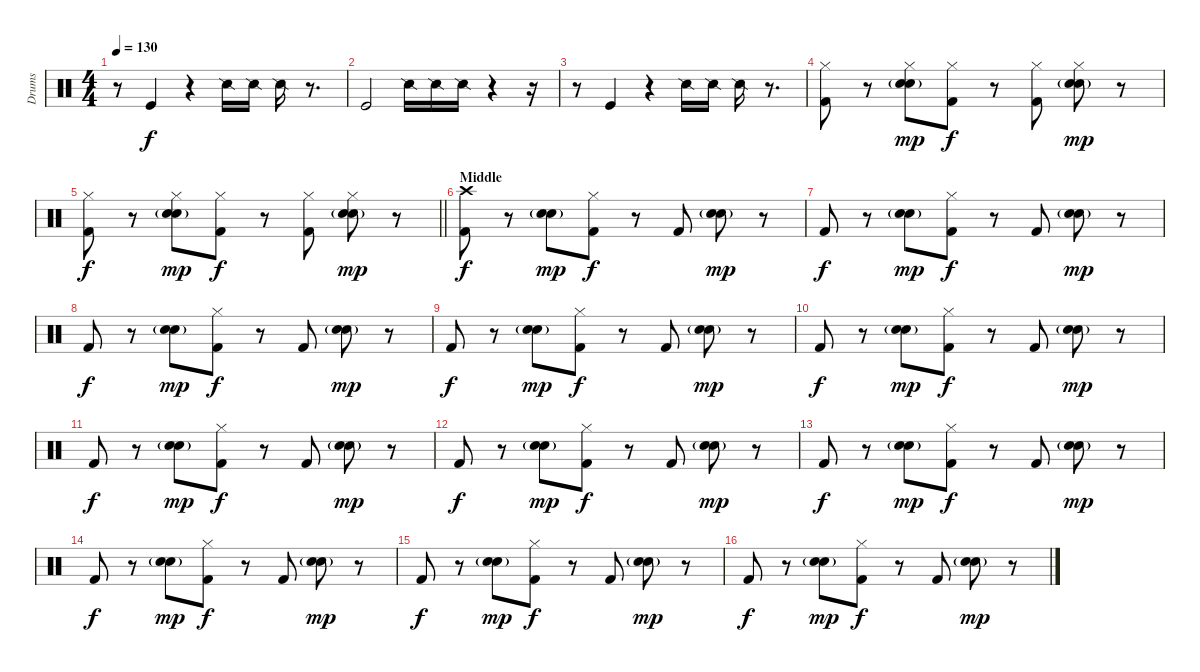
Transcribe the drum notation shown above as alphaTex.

\track ("Drums" "Drums") {instrument percussion}
\staff {score}
\articulation defaults
\ts (4 4)
\tempo 130
\clef neutral
\ks c
r.8{dy f} "Kick (hit)".4 r.4 "Snare (side stick) 2".16 "Snare (side stick) 2".16 "Snare (side stick) 2".16 r.8{d} |
"Kick (hit)".2 "Snare (side stick) 2".16 "Snare (side stick) 2".16 "Snare (side stick) 2".16 r.4 r.16 |
r.8 "Kick (hit)".4 r.4 "Snare (side stick) 2".16 "Snare (side stick) 2".16 "Snare (side stick) 2".16 r.8{d volume 4} |
("Hi-Hat (closed)" "Kick (hit) 2").8{volume 16} r.8 ("Hi-Hat (closed)" "Snare (hit) 2"{g} "Electric Snare (hit)").8{dy mp} ("Hi-Hat (closed)" "Kick (hit) 2").8{dy f} r.8 ("Hi-Hat (closed)" "Kick (hit) 2").8 ("Hi-Hat (closed)" "Snare (hit) 2"{g} "Electric Snare (hit)").8{dy mp} r.8 |
\barLineRight lightlight
("Hi-Hat (closed)" "Kick (hit) 2").8{dy f} r.8 ("Hi-Hat (closed)" "Snare (hit) 2"{g} "Electric Snare (hit)").8{dy mp} ("Hi-Hat (closed)" "Kick (hit) 2").8{dy f} r.8 ("Hi-Hat (closed)" "Kick (hit) 2").8 ("Hi-Hat (closed)" "Snare (hit) 2"{g} "Electric Snare (hit)").8{dy mp} r.8 |
\section ("" "Middle")
("Crash high (hit)" "Kick (hit) 2").8{dy f} r.8 ("Snare (hit) 2"{g} "Electric Snare (hit)").8{dy mp} ("Hi-Hat (closed)" "Kick (hit) 2").8{dy f} r.8 "Kick (hit) 2".8 ("Snare (hit) 2"{g} "Electric Snare (hit)").8{dy mp} r.8 |
"Kick (hit) 2".8{dy f} r.8 ("Snare (hit) 2"{g} "Electric Snare (hit)").8{dy mp} ("Hi-Hat (closed)" "Kick (hit) 2").8{dy f} r.8 "Kick (hit) 2".8 ("Snare (hit) 2"{g} "Electric Snare (hit)").8{dy mp} r.8 |
"Kick (hit) 2".8{dy f} r.8 ("Snare (hit) 2"{g} "Electric Snare (hit)").8{dy mp} ("Hi-Hat (closed)" "Kick (hit) 2").8{dy f} r.8 "Kick (hit) 2".8 ("Snare (hit) 2"{g} "Electric Snare (hit)").8{dy mp} r.8 |
"Kick (hit) 2".8{dy f} r.8 ("Snare (hit) 2"{g} "Electric Snare (hit)").8{dy mp} ("Hi-Hat (closed)" "Kick (hit) 2").8{dy f} r.8 "Kick (hit) 2".8 ("Snare (hit) 2"{g} "Electric Snare (hit)").8{dy mp} r.8 |
"Kick (hit) 2".8{dy f} r.8 ("Snare (hit) 2"{g} "Electric Snare (hit)").8{dy mp} ("Hi-Hat (closed)" "Kick (hit) 2").8{dy f} r.8 "Kick (hit) 2".8 ("Snare (hit) 2"{g} "Electric Snare (hit)").8{dy mp} r.8 |
"Kick (hit) 2".8{dy f} r.8 ("Snare (hit) 2"{g} "Electric Snare (hit)").8{dy mp} ("Hi-Hat (closed)" "Kick (hit) 2").8{dy f} r.8 "Kick (hit) 2".8 ("Snare (hit) 2"{g} "Electric Snare (hit)").8{dy mp} r.8 |
"Kick (hit) 2".8{dy f} r.8 ("Snare (hit) 2"{g} "Electric Snare (hit)").8{dy mp} ("Hi-Hat (closed)" "Kick (hit) 2").8{dy f} r.8 "Kick (hit) 2".8 ("Snare (hit) 2"{g} "Electric Snare (hit)").8{dy mp} r.8 |
"Kick (hit) 2".8{dy f} r.8 ("Snare (hit) 2"{g} "Electric Snare (hit)").8{dy mp} ("Hi-Hat (closed)" "Kick (hit) 2").8{dy f} r.8 "Kick (hit) 2".8 ("Snare (hit) 2"{g} "Electric Snare (hit)").8{dy mp} r.8 |
"Kick (hit) 2".8{dy f} r.8 ("Snare (hit) 2"{g} "Electric Snare (hit)").8{dy mp} ("Hi-Hat (closed)" "Kick (hit) 2").8{dy f} r.8 "Kick (hit) 2".8 ("Snare (hit) 2"{g} "Electric Snare (hit)").8{dy mp} r.8 |
"Kick (hit) 2".8{dy f} r.8 ("Snare (hit) 2"{g} "Electric Snare (hit)").8{dy mp} ("Hi-Hat (closed)" "Kick (hit) 2").8{dy f} r.8 "Kick (hit) 2".8 ("Snare (hit) 2"{g} "Electric Snare (hit)").8{dy mp} r.8 |
"Kick (hit) 2".8{dy f} r.8 ("Snare (hit) 2"{g} "Electric Snare (hit)").8{dy mp} ("Hi-Hat (closed)" "Kick (hit) 2").8{dy f} r.8 "Kick (hit) 2".8 ("Snare (hit) 2"{g} "Electric Snare (hit)").8{dy mp} r.8
